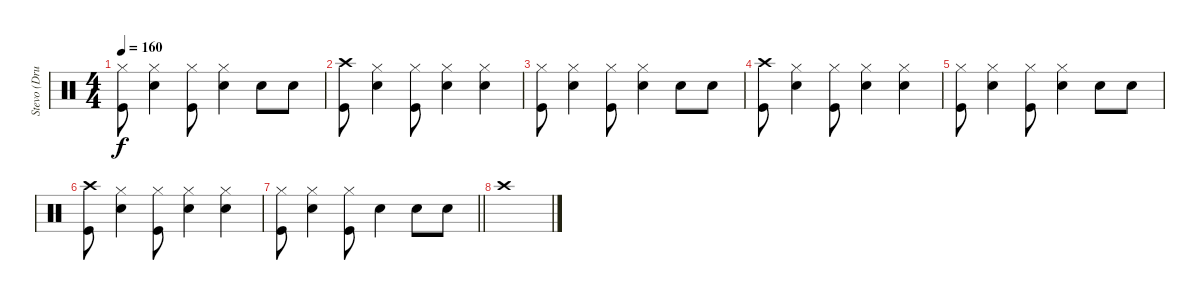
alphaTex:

\track ("Stevo (Drums)" "Stevo (Dru") {instrument percussion}
\staff {score}
\articulation defaults
\ts (4 4)
\tempo 160
\clef neutral
\ks c
("Hi-Hat (closed)" "Kick (hit)").8{dy f} ("Hi-Hat (closed)" "Electric Snare (hit)").4 ("Hi-Hat (closed)" "Kick (hit)").8 ("Hi-Hat (closed)" "Electric Snare (hit)").4 "Electric Snare (hit)".8 "Electric Snare (hit)".8 |
("Crash high (hit)" "Kick (hit)").8 ("Hi-Hat (closed)" "Electric Snare (hit)").4 ("Hi-Hat (closed)" "Kick (hit)").8 ("Hi-Hat (closed)" "Electric Snare (hit)").4 ("Hi-Hat (closed)" "Electric Snare (hit)").4 |
("Hi-Hat (closed)" "Kick (hit)").8 ("Hi-Hat (closed)" "Electric Snare (hit)").4 ("Hi-Hat (closed)" "Kick (hit)").8 ("Hi-Hat (closed)" "Electric Snare (hit)").4 "Electric Snare (hit)".8 "Electric Snare (hit)".8 |
("Crash high (hit)" "Kick (hit)").8 ("Hi-Hat (closed)" "Electric Snare (hit)").4 ("Hi-Hat (closed)" "Kick (hit)").8 ("Hi-Hat (closed)" "Electric Snare (hit)").4 ("Hi-Hat (closed)" "Electric Snare (hit)").4 |
("Hi-Hat (closed)" "Kick (hit)").8 ("Hi-Hat (closed)" "Electric Snare (hit)").4 ("Hi-Hat (closed)" "Kick (hit)").8 ("Hi-Hat (closed)" "Electric Snare (hit)").4 "Electric Snare (hit)".8 "Electric Snare (hit)".8 |
("Crash high (hit)" "Kick (hit)").8 ("Hi-Hat (closed)" "Electric Snare (hit)").4 ("Hi-Hat (closed)" "Kick (hit)").8 ("Hi-Hat (closed)" "Electric Snare (hit)").4 ("Hi-Hat (closed)" "Electric Snare (hit)").4 |
\barLineRight lightlight
("Hi-Hat (closed)" "Kick (hit)").8 ("Hi-Hat (closed)" "Electric Snare (hit)").4 ("Hi-Hat (closed)" "Kick (hit)").8 "Electric Snare (hit)".4 "Electric Snare (hit)".8 "Electric Snare (hit)".8 |
"Crash high (hit)".1
